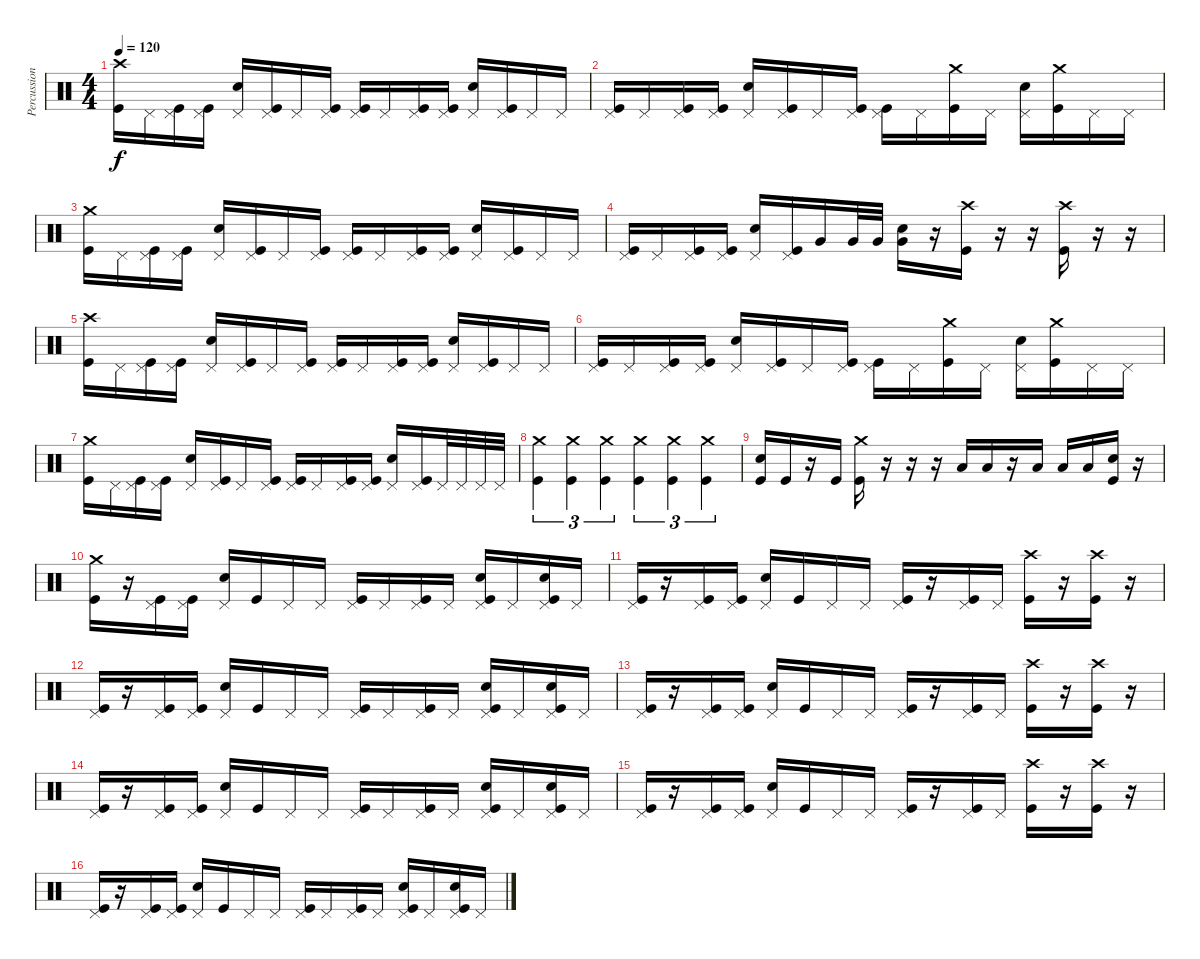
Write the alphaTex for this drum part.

\track ("Percussion" "Percussion") {instrument percussion}
\staff {score}
\articulation defaults
\ts (4 4)
\tempo 120
\clef neutral
\ks c
("Kick (hit)" "Crash high (hit)").16{dy f} "Pedal Hi-Hat (hit)".16 ("Kick (hit)" "Pedal Hi-Hat (hit)").16 ("Kick (hit)" "Pedal Hi-Hat (hit)").16 ("Electric Snare (hit)" "Pedal Hi-Hat (hit)").16 ("Kick (hit)" "Pedal Hi-Hat (hit)").16 "Pedal Hi-Hat (hit)".16 ("Kick (hit)" "Pedal Hi-Hat (hit)").16 ("Kick (hit)" "Pedal Hi-Hat (hit)").16 "Pedal Hi-Hat (hit)".16 ("Kick (hit)" "Pedal Hi-Hat (hit)").16 ("Kick (hit)" "Pedal Hi-Hat (hit)").16 ("Electric Snare (hit)" "Pedal Hi-Hat (hit)").16 ("Kick (hit)" "Pedal Hi-Hat (hit)").16 "Pedal Hi-Hat (hit)".16 "Pedal Hi-Hat (hit)".16 |
("Kick (hit)" "Pedal Hi-Hat (hit)").16 "Pedal Hi-Hat (hit)".16 ("Kick (hit)" "Pedal Hi-Hat (hit)").16 ("Kick (hit)" "Pedal Hi-Hat (hit)").16 ("Electric Snare (hit)" "Pedal Hi-Hat (hit)").16 ("Kick (hit)" "Pedal Hi-Hat (hit)").16 "Pedal Hi-Hat (hit)".16 ("Kick (hit)" "Pedal Hi-Hat (hit)").16 ("Kick (hit)" "Pedal Hi-Hat (hit)").16 "Pedal Hi-Hat (hit)".16 ("Kick (hit)" "Crash medium (hit)").16 "Pedal Hi-Hat (hit)".16 ("Electric Snare (hit)" "Pedal Hi-Hat (hit)").16 ("Kick (hit)" "Crash medium (hit)").16 "Pedal Hi-Hat (hit)".16 "Pedal Hi-Hat (hit)".16 |
("Kick (hit)" "Crash medium (hit)").16 "Pedal Hi-Hat (hit)".16 ("Kick (hit)" "Pedal Hi-Hat (hit)").16 ("Kick (hit)" "Pedal Hi-Hat (hit)").16 ("Electric Snare (hit)" "Pedal Hi-Hat (hit)").16 ("Kick (hit)" "Pedal Hi-Hat (hit)").16 "Pedal Hi-Hat (hit)".16 ("Kick (hit)" "Pedal Hi-Hat (hit)").16 ("Kick (hit)" "Pedal Hi-Hat (hit)").16 "Pedal Hi-Hat (hit)".16 ("Kick (hit)" "Pedal Hi-Hat (hit)").16 ("Kick (hit)" "Pedal Hi-Hat (hit)").16 ("Electric Snare (hit)" "Pedal Hi-Hat (hit)").16 ("Kick (hit)" "Pedal Hi-Hat (hit)").16 "Pedal Hi-Hat (hit)".16 "Pedal Hi-Hat (hit)".16 |
("Kick (hit)" "Pedal Hi-Hat (hit)").16 "Pedal Hi-Hat (hit)".16 ("Kick (hit)" "Pedal Hi-Hat (hit)").16 ("Kick (hit)" "Pedal Hi-Hat (hit)").16 ("Electric Snare (hit)" "Pedal Hi-Hat (hit)").16 ("Kick (hit)" "Pedal Hi-Hat (hit)").16 "Very Low Tom (hit)".16 "Very Low Tom (hit)".32 "Very Low Tom (hit)".32 ("Electric Snare (hit)" "Very Low Tom (hit)").16 r.16 ("Kick (hit)" "Crash high (hit)").16 r.16 r.16 ("Kick (hit)" "Crash high (hit)").16 r.16 r.16 |
("Kick (hit)" "Crash high (hit)").16 "Pedal Hi-Hat (hit)".16 ("Kick (hit)" "Pedal Hi-Hat (hit)").16 ("Kick (hit)" "Pedal Hi-Hat (hit)").16 ("Electric Snare (hit)" "Pedal Hi-Hat (hit)").16 ("Kick (hit)" "Pedal Hi-Hat (hit)").16 "Pedal Hi-Hat (hit)".16 ("Kick (hit)" "Pedal Hi-Hat (hit)").16 ("Kick (hit)" "Pedal Hi-Hat (hit)").16 "Pedal Hi-Hat (hit)".16 ("Kick (hit)" "Pedal Hi-Hat (hit)").16 ("Kick (hit)" "Pedal Hi-Hat (hit)").16 ("Electric Snare (hit)" "Pedal Hi-Hat (hit)").16 ("Kick (hit)" "Pedal Hi-Hat (hit)").16 "Pedal Hi-Hat (hit)".16 "Pedal Hi-Hat (hit)".16 |
("Kick (hit)" "Pedal Hi-Hat (hit)").16 "Pedal Hi-Hat (hit)".16 ("Kick (hit)" "Pedal Hi-Hat (hit)").16 ("Kick (hit)" "Pedal Hi-Hat (hit)").16 ("Electric Snare (hit)" "Pedal Hi-Hat (hit)").16 ("Kick (hit)" "Pedal Hi-Hat (hit)").16 "Pedal Hi-Hat (hit)".16 ("Kick (hit)" "Pedal Hi-Hat (hit)").16 ("Kick (hit)" "Pedal Hi-Hat (hit)").16 "Pedal Hi-Hat (hit)".16 ("Kick (hit)" "Crash medium (hit)").16 "Pedal Hi-Hat (hit)".16 ("Electric Snare (hit)" "Pedal Hi-Hat (hit)").16 ("Kick (hit)" "Crash medium (hit)").16 "Pedal Hi-Hat (hit)".16 "Pedal Hi-Hat (hit)".16 |
("Kick (hit)" "Crash medium (hit)").16 "Pedal Hi-Hat (hit)".16 ("Kick (hit)" "Pedal Hi-Hat (hit)").16 ("Kick (hit)" "Pedal Hi-Hat (hit)").16 ("Electric Snare (hit)" "Pedal Hi-Hat (hit)").16 ("Kick (hit)" "Pedal Hi-Hat (hit)").16 "Pedal Hi-Hat (hit)".16 ("Kick (hit)" "Pedal Hi-Hat (hit)").16 ("Kick (hit)" "Pedal Hi-Hat (hit)").16 "Pedal Hi-Hat (hit)".16 ("Kick (hit)" "Pedal Hi-Hat (hit)").16 ("Kick (hit)" "Pedal Hi-Hat (hit)").16 ("Electric Snare (hit)" "Pedal Hi-Hat (hit)").16 ("Kick (hit)" "Pedal Hi-Hat (hit)").16 "Pedal Hi-Hat (hit)".32 "Pedal Hi-Hat (hit)".32 "Pedal Hi-Hat (hit)".32 "Pedal Hi-Hat (hit)".32 |
("Kick (hit)" "Crash medium (hit)").4{tu (3 2)} ("Kick (hit)" "Crash medium (hit)").4{tu (3 2)} ("Kick (hit)" "Crash medium (hit)").4{tu (3 2)} ("Kick (hit)" "Crash medium (hit)").4{tu (3 2)} ("Kick (hit)" "Crash medium (hit)").4{tu (3 2)} ("Kick (hit)" "Crash medium (hit)").4{tu (3 2)} |
("Kick (hit)" "Electric Snare (hit)").16 "Kick (hit)".16 r.16 "Kick (hit)".16 ("Kick (hit)" "Crash medium (hit)").16 r.16 r.16 r.16 "Low Tom (hit)".16 "Low Tom (hit)".16 r.16 "Low Floor Tom (hit)".16 "Low Floor Tom (hit)".16 "Low Floor Tom (hit)".16 ("Kick (hit)" "Electric Snare (hit)").16 r.16 |
("Kick (hit)" "Crash medium (hit)").16 r.16 ("Kick (hit)" "Pedal Hi-Hat (hit)").16 ("Kick (hit)" "Pedal Hi-Hat (hit)").16 ("Electric Snare (hit)" "Pedal Hi-Hat (hit)").16 "Kick (hit)".16 "Pedal Hi-Hat (hit)".16 "Pedal Hi-Hat (hit)".16 ("Kick (hit)" "Pedal Hi-Hat (hit)").16 "Pedal Hi-Hat (hit)".16 ("Kick (hit)" "Pedal Hi-Hat (hit)").16 "Pedal Hi-Hat (hit)".16 ("Kick (hit)" "Electric Snare (hit)" "Pedal Hi-Hat (hit)").16 "Pedal Hi-Hat (hit)".16 ("Kick (hit)" "Electric Snare (hit)" "Pedal Hi-Hat (hit)").16 "Pedal Hi-Hat (hit)".16 |
("Kick (hit)" "Pedal Hi-Hat (hit)").16 r.16 ("Kick (hit)" "Pedal Hi-Hat (hit)").16 ("Kick (hit)" "Pedal Hi-Hat (hit)").16 ("Electric Snare (hit)" "Pedal Hi-Hat (hit)").16 "Kick (hit)".16 "Pedal Hi-Hat (hit)".16 "Pedal Hi-Hat (hit)".16 ("Kick (hit)" "Pedal Hi-Hat (hit)").16 r.16 ("Kick (hit)" "Pedal Hi-Hat (hit)").16 "Pedal Hi-Hat (hit)".16 ("Kick (hit)" "Crash high (hit)").16 r.16 ("Kick (hit)" "Crash high (hit)").16 r.16 |
("Kick (hit)" "Pedal Hi-Hat (hit)").16 r.16 ("Kick (hit)" "Pedal Hi-Hat (hit)").16 ("Kick (hit)" "Pedal Hi-Hat (hit)").16 ("Electric Snare (hit)" "Pedal Hi-Hat (hit)").16 "Kick (hit)".16 "Pedal Hi-Hat (hit)".16 "Pedal Hi-Hat (hit)".16 ("Kick (hit)" "Pedal Hi-Hat (hit)").16 "Pedal Hi-Hat (hit)".16 ("Kick (hit)" "Pedal Hi-Hat (hit)").16 "Pedal Hi-Hat (hit)".16 ("Kick (hit)" "Electric Snare (hit)" "Pedal Hi-Hat (hit)").16 "Pedal Hi-Hat (hit)".16 ("Kick (hit)" "Electric Snare (hit)" "Pedal Hi-Hat (hit)").16 "Pedal Hi-Hat (hit)".16 |
("Kick (hit)" "Pedal Hi-Hat (hit)").16 r.16 ("Kick (hit)" "Pedal Hi-Hat (hit)").16 ("Kick (hit)" "Pedal Hi-Hat (hit)").16 ("Electric Snare (hit)" "Pedal Hi-Hat (hit)").16 "Kick (hit)".16 "Pedal Hi-Hat (hit)".16 "Pedal Hi-Hat (hit)".16 ("Kick (hit)" "Pedal Hi-Hat (hit)").16 r.16 ("Kick (hit)" "Pedal Hi-Hat (hit)").16 "Pedal Hi-Hat (hit)".16 ("Kick (hit)" "Crash high (hit)").16 r.16 ("Kick (hit)" "Crash high (hit)").16 r.16 |
("Kick (hit)" "Pedal Hi-Hat (hit)").16 r.16 ("Kick (hit)" "Pedal Hi-Hat (hit)").16 ("Kick (hit)" "Pedal Hi-Hat (hit)").16 ("Electric Snare (hit)" "Pedal Hi-Hat (hit)").16 "Kick (hit)".16 "Pedal Hi-Hat (hit)".16 "Pedal Hi-Hat (hit)".16 ("Kick (hit)" "Pedal Hi-Hat (hit)").16 "Pedal Hi-Hat (hit)".16 ("Kick (hit)" "Pedal Hi-Hat (hit)").16 "Pedal Hi-Hat (hit)".16 ("Kick (hit)" "Electric Snare (hit)" "Pedal Hi-Hat (hit)").16 "Pedal Hi-Hat (hit)".16 ("Kick (hit)" "Electric Snare (hit)" "Pedal Hi-Hat (hit)").16 "Pedal Hi-Hat (hit)".16 |
("Kick (hit)" "Pedal Hi-Hat (hit)").16 r.16 ("Kick (hit)" "Pedal Hi-Hat (hit)").16 ("Kick (hit)" "Pedal Hi-Hat (hit)").16 ("Electric Snare (hit)" "Pedal Hi-Hat (hit)").16 "Kick (hit)".16 "Pedal Hi-Hat (hit)".16 "Pedal Hi-Hat (hit)".16 ("Kick (hit)" "Pedal Hi-Hat (hit)").16 r.16 ("Kick (hit)" "Pedal Hi-Hat (hit)").16 "Pedal Hi-Hat (hit)".16 ("Kick (hit)" "Crash high (hit)").16 r.16 ("Kick (hit)" "Crash high (hit)").16 r.16 |
("Kick (hit)" "Pedal Hi-Hat (hit)").16 r.16 ("Kick (hit)" "Pedal Hi-Hat (hit)").16 ("Kick (hit)" "Pedal Hi-Hat (hit)").16 ("Electric Snare (hit)" "Pedal Hi-Hat (hit)").16 "Kick (hit)".16 "Pedal Hi-Hat (hit)".16 "Pedal Hi-Hat (hit)".16 ("Kick (hit)" "Pedal Hi-Hat (hit)").16 "Pedal Hi-Hat (hit)".16 ("Kick (hit)" "Pedal Hi-Hat (hit)").16 "Pedal Hi-Hat (hit)".16 ("Kick (hit)" "Electric Snare (hit)" "Pedal Hi-Hat (hit)").16 "Pedal Hi-Hat (hit)".16 ("Kick (hit)" "Electric Snare (hit)" "Pedal Hi-Hat (hit)").16 "Pedal Hi-Hat (hit)".16
